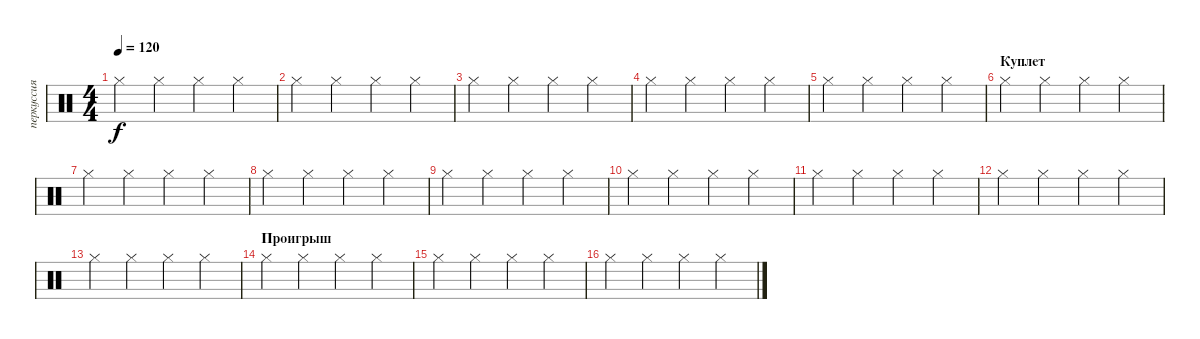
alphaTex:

\track ("перкуссия" "перкуссия") {instrument percussion}
\staff {score}
\articulation defaults
\ts (4 4)
\tempo 120
\clef neutral
\ks c "Hi-Hat (closed)".4{dy f} "Hi-Hat (closed)".4 "Hi-Hat (closed)".4 "Hi-Hat (closed)".4
|
"Hi-Hat (closed)".4 "Hi-Hat (closed)".4 "Hi-Hat (closed)".4 "Hi-Hat (closed)".4 |
"Hi-Hat (closed)".4 "Hi-Hat (closed)".4 "Hi-Hat (closed)".4 "Hi-Hat (closed)".4 |
"Hi-Hat (closed)".4 "Hi-Hat (closed)".4 "Hi-Hat (closed)".4 "Hi-Hat (closed)".4 |
"Hi-Hat (closed)".4 "Hi-Hat (closed)".4 "Hi-Hat (closed)".4 "Hi-Hat (closed)".4 |
\section ("" "Куплет")
"Hi-Hat (closed)".4 "Hi-Hat (closed)".4 "Hi-Hat (closed)".4 "Hi-Hat (closed)".4 |
"Hi-Hat (closed)".4 "Hi-Hat (closed)".4 "Hi-Hat (closed)".4 "Hi-Hat (closed)".4 |
"Hi-Hat (closed)".4 "Hi-Hat (closed)".4 "Hi-Hat (closed)".4 "Hi-Hat (closed)".4 |
"Hi-Hat (closed)".4 "Hi-Hat (closed)".4 "Hi-Hat (closed)".4 "Hi-Hat (closed)".4 |
"Hi-Hat (closed)".4 "Hi-Hat (closed)".4 "Hi-Hat (closed)".4 "Hi-Hat (closed)".4 |
"Hi-Hat (closed)".4 "Hi-Hat (closed)".4 "Hi-Hat (closed)".4 "Hi-Hat (closed)".4 |
"Hi-Hat (closed)".4 "Hi-Hat (closed)".4 "Hi-Hat (closed)".4 "Hi-Hat (closed)".4 |
"Hi-Hat (closed)".4 "Hi-Hat (closed)".4 "Hi-Hat (closed)".4 "Hi-Hat (closed)".4 |
\section ("" "Проигрыш")
"Hi-Hat (closed)".4 "Hi-Hat (closed)".4 "Hi-Hat (closed)".4 "Hi-Hat (closed)".4 |
"Hi-Hat (closed)".4 "Hi-Hat (closed)".4 "Hi-Hat (closed)".4 "Hi-Hat (closed)".4 |
"Hi-Hat (closed)".4 "Hi-Hat (closed)".4 "Hi-Hat (closed)".4 "Hi-Hat (closed)".4
